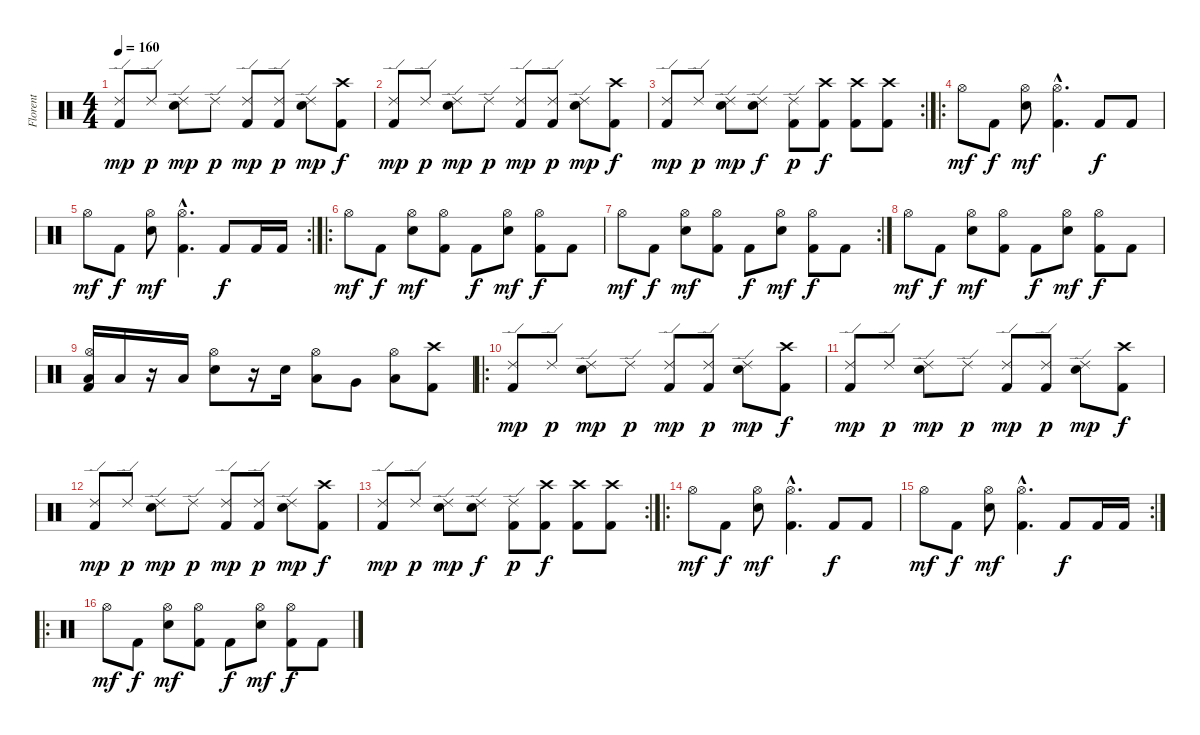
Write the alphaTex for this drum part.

\track ("Florent" "Florent") {instrument percussion}
\staff {score}
\articulation defaults
\ts (4 4)
\tempo 160
\clef neutral
\ks c
("Ride (edge) 2" "Kick (hit) 2").8{dy mp} "Ride (edge) 2".8{dy p} ("Ride (edge) 2" "Electric Snare (hit)").8{dy mp} "Ride (edge) 2".8{dy p} ("Ride (edge) 2" "Kick (hit) 2").8{dy mp} ("Ride (edge) 2" "Kick (hit) 2").8{dy p} ("Ride (edge) 2" "Electric Snare (hit)").8{dy mp} ("Crash high (hit)" "Kick (hit) 2").8{dy f} |
("Ride (edge) 2" "Kick (hit) 2").8{dy mp} "Ride (edge) 2".8{dy p} ("Ride (edge) 2" "Electric Snare (hit)").8{dy mp} "Ride (edge) 2".8{dy p} ("Ride (edge) 2" "Kick (hit) 2").8{dy mp} ("Ride (edge) 2" "Kick (hit) 2").8{dy p} ("Ride (edge) 2" "Electric Snare (hit)").8{dy mp} ("Crash high (hit)" "Kick (hit) 2").8{dy f} |
\rc 2
("Ride (edge) 2" "Kick (hit) 2").8{dy mp} "Ride (edge) 2".8{dy p} ("Ride (edge) 2" "Electric Snare (hit)").8{dy mp} ("Ride (edge) 2" "Electric Snare (hit)").8{dy f} ("Ride (edge) 2" "Kick (hit) 2").8{dy p} ("Crash high (hit)" "Kick (hit) 2").8{dy f} ("Crash high (hit)" "Kick (hit) 2").8 ("Crash high (hit)" "Kick (hit) 2").8 |
\ro "Hi-Hat (open)".8{dy mf} "Kick (hit) 2".8{dy f}
("Hi-Hat (open)" "Electric Snare (hit)").8{dy mf} ("Hi-Hat (open)"{hac} "Kick (hit) 2"{hac}).4{d} "Kick (hit) 2".8{dy f} "Kick (hit) 2".8 |
\rc 2 "Hi-Hat (open)".8{dy mf} "Kick (hit) 2".8{dy f}
("Hi-Hat (open)" "Electric Snare (hit)").8{dy mf} ("Hi-Hat (open)"{hac} "Kick (hit) 2"{hac}).4{d} "Kick (hit) 2".8{dy f} "Kick (hit) 2".16 "Kick (hit) 2".16 |
\ro "Hi-Hat (open)".8{dy mf} "Kick (hit) 2".8{dy f}
("Hi-Hat (open)" "Electric Snare (hit)").8{dy mf} ("Hi-Hat (open)" "Kick (hit) 2").8 "Kick (hit) 2".8{dy f} ("Hi-Hat (open)" "Electric Snare (hit)").8{dy mf} ("Hi-Hat (open)" "Kick (hit) 2").8{dy f} "Kick (hit) 2".8 |
\rc 2 "Hi-Hat (open)".8{dy mf} "Kick (hit) 2".8{dy f}
("Hi-Hat (open)" "Electric Snare (hit)").8{dy mf} ("Hi-Hat (open)" "Kick (hit) 2").8 "Kick (hit) 2".8{dy f} ("Hi-Hat (open)" "Electric Snare (hit)").8{dy mf} ("Hi-Hat (open)" "Kick (hit) 2").8{dy f} "Kick (hit) 2".8 |
"Hi-Hat (open)".8{dy mf} "Kick (hit) 2".8{dy f} ("Hi-Hat (open)" "Electric Snare (hit)").8{dy mf} ("Hi-Hat (open)" "Kick (hit) 2").8 "Kick (hit) 2".8{dy f} ("Hi-Hat (open)" "Electric Snare (hit)").8{dy mf} ("Hi-Hat (open)" "Kick (hit) 2").8{dy f} "Kick (hit) 2".8 |
("Kick (hit) 2" "Low Floor Tom (hit)" "Hi-Hat (open)").16 "Low Floor Tom (hit)".16 r.16 "Low Floor Tom (hit)".16 ("Snare (hit) 2" "Hi-Hat (open)").8 r.16 "Snare (hit) 2".16 ("Low Tom (hit)" "Hi-Hat (open)").8 "Very Low Tom (hit)".8 ("Low Floor Tom (hit)" "Hi-Hat (open)").8 ("Kick (hit) 2" "Crash high (hit)").8 |
\ro
("Ride (edge) 2" "Kick (hit) 2").8{dy mp} "Ride (edge) 2".8{dy p} ("Ride (edge) 2" "Electric Snare (hit)").8{dy mp} "Ride (edge) 2".8{dy p} ("Ride (edge) 2" "Kick (hit) 2").8{dy mp} ("Ride (edge) 2" "Kick (hit) 2").8{dy p} ("Ride (edge) 2" "Electric Snare (hit)").8{dy mp} ("Crash high (hit)" "Kick (hit) 2").8{dy f} |
("Ride (edge) 2" "Kick (hit) 2").8{dy mp} "Ride (edge) 2".8{dy p} ("Ride (edge) 2" "Electric Snare (hit)").8{dy mp} "Ride (edge) 2".8{dy p} ("Ride (edge) 2" "Kick (hit) 2").8{dy mp} ("Ride (edge) 2" "Kick (hit) 2").8{dy p} ("Ride (edge) 2" "Electric Snare (hit)").8{dy mp} ("Crash high (hit)" "Kick (hit) 2").8{dy f} |
("Ride (edge) 2" "Kick (hit) 2").8{dy mp} "Ride (edge) 2".8{dy p} ("Ride (edge) 2" "Electric Snare (hit)").8{dy mp} "Ride (edge) 2".8{dy p} ("Ride (edge) 2" "Kick (hit) 2").8{dy mp} ("Ride (edge) 2" "Kick (hit) 2").8{dy p} ("Ride (edge) 2" "Electric Snare (hit)").8{dy mp} ("Crash high (hit)" "Kick (hit) 2").8{dy f} |
\rc 2
("Ride (edge) 2" "Kick (hit) 2").8{dy mp} "Ride (edge) 2".8{dy p} ("Ride (edge) 2" "Electric Snare (hit)").8{dy mp} ("Ride (edge) 2" "Electric Snare (hit)").8{dy f} ("Ride (edge) 2" "Kick (hit) 2").8{dy p} ("Crash high (hit)" "Kick (hit) 2").8{dy f} ("Crash high (hit)" "Kick (hit) 2").8 ("Crash high (hit)" "Kick (hit) 2").8 |
\ro "Hi-Hat (open)".8{dy mf} "Kick (hit) 2".8{dy f}
("Hi-Hat (open)" "Electric Snare (hit)").8{dy mf} ("Hi-Hat (open)"{hac} "Kick (hit) 2"{hac}).4{d} "Kick (hit) 2".8{dy f} "Kick (hit) 2".8 |
\rc 2 "Hi-Hat (open)".8{dy mf} "Kick (hit) 2".8{dy f}
("Hi-Hat (open)" "Electric Snare (hit)").8{dy mf} ("Hi-Hat (open)"{hac} "Kick (hit) 2"{hac}).4{d} "Kick (hit) 2".8{dy f} "Kick (hit) 2".16 "Kick (hit) 2".16 |
\ro "Hi-Hat (open)".8{dy mf} "Kick (hit) 2".8{dy f}
("Hi-Hat (open)" "Electric Snare (hit)").8{dy mf} ("Hi-Hat (open)" "Kick (hit) 2").8 "Kick (hit) 2".8{dy f} ("Hi-Hat (open)" "Electric Snare (hit)").8{dy mf} ("Hi-Hat (open)" "Kick (hit) 2").8{dy f} "Kick (hit) 2".8
